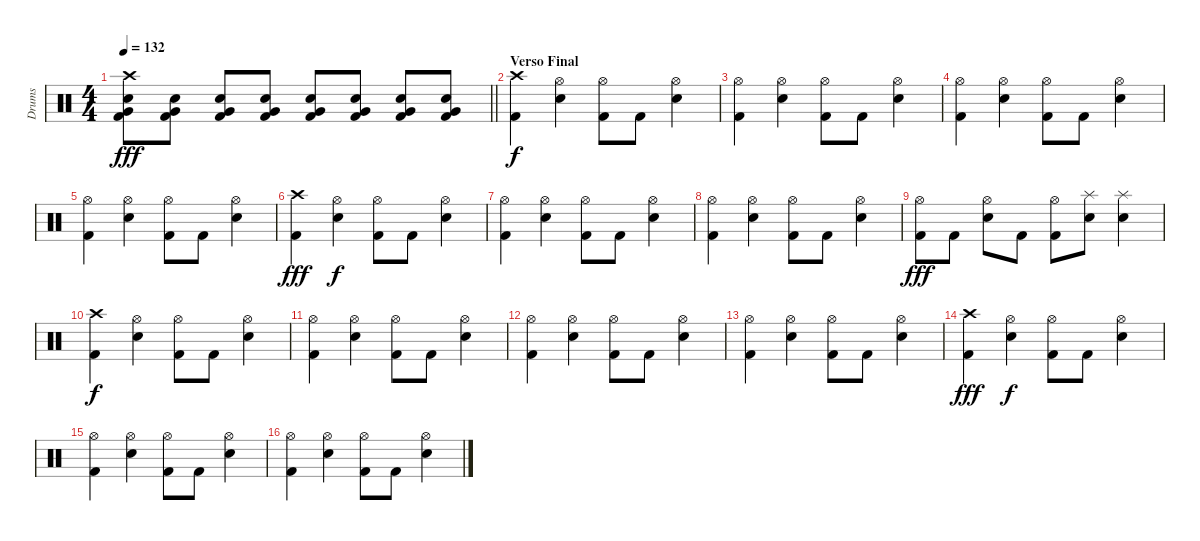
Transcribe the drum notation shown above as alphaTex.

\track ("Drums" "Drums") {instrument percussion}
\staff {score}
\articulation defaults
\ts (4 4)
\tempo 132
\clef neutral
\barLineRight lightlight
\ks c
("Crash high (hit)" "Electric Snare (hit)" "Very Low Tom (hit)" "Kick (hit) 2").8{dy fff} ("Electric Snare (hit)" "Very Low Tom (hit)" "Kick (hit) 2").8 ("Electric Snare (hit)" "Very Low Tom (hit)" "Kick (hit) 2").8 ("Electric Snare (hit)" "Very Low Tom (hit)" "Kick (hit) 2").8 ("Electric Snare (hit)" "Very Low Tom (hit)" "Kick (hit) 2").8 ("Electric Snare (hit)" "Very Low Tom (hit)" "Kick (hit) 2").8 ("Electric Snare (hit)" "Very Low Tom (hit)" "Kick (hit) 2").8 ("Electric Snare (hit)" "Very Low Tom (hit)" "Kick (hit) 2").8 |
\section ("" "Verso Final")
("Crash high (hit)" "Kick (hit) 2").4{dy f} ("Hi-Hat (open)" "Electric Snare (hit)").4 ("Hi-Hat (open)" "Kick (hit) 2").8 "Kick (hit) 2".8 ("Hi-Hat (open)" "Electric Snare (hit)").4 |
("Hi-Hat (open)" "Kick (hit) 2").4 ("Hi-Hat (open)" "Electric Snare (hit)").4 ("Hi-Hat (open)" "Kick (hit) 2").8 "Kick (hit) 2".8 ("Hi-Hat (open)" "Electric Snare (hit)").4 |
("Hi-Hat (open)" "Kick (hit) 2").4 ("Hi-Hat (open)" "Electric Snare (hit)").4 ("Hi-Hat (open)" "Kick (hit) 2").8 "Kick (hit) 2".8 ("Hi-Hat (open)" "Electric Snare (hit)").4 |
("Hi-Hat (open)" "Kick (hit) 2").4 ("Hi-Hat (open)" "Electric Snare (hit)").4 ("Hi-Hat (open)" "Kick (hit) 2").8 "Kick (hit) 2".8 ("Hi-Hat (open)" "Electric Snare (hit)").4 |
("Crash high (hit)" "Kick (hit) 2").4{dy fff} ("Hi-Hat (open)" "Electric Snare (hit)").4{dy f} ("Hi-Hat (open)" "Kick (hit) 2").8 "Kick (hit) 2".8 ("Hi-Hat (open)" "Electric Snare (hit)").4 |
("Hi-Hat (open)" "Kick (hit) 2").4 ("Hi-Hat (open)" "Electric Snare (hit)").4 ("Hi-Hat (open)" "Kick (hit) 2").8 "Kick (hit) 2".8 ("Hi-Hat (open)" "Electric Snare (hit)").4 |
("Hi-Hat (open)" "Kick (hit) 2").4 ("Hi-Hat (open)" "Electric Snare (hit)").4 ("Hi-Hat (open)" "Kick (hit) 2").8 "Kick (hit) 2".8 ("Hi-Hat (open)" "Electric Snare (hit)").4 |
("Hi-Hat (open)" "Kick (hit) 2").8{dy fff} "Kick (hit) 2".8 ("Hi-Hat (open)" "Electric Snare (hit)").8 "Kick (hit) 2".8 ("Hi-Hat (open)" "Kick (hit) 2").8 ("Splash (hit)" "Electric Snare (hit)").8 ("Splash (hit)" "Electric Snare (hit)").4 |
("Crash high (hit)" "Kick (hit) 2").4{dy f} ("Hi-Hat (open)" "Electric Snare (hit)").4 ("Hi-Hat (open)" "Kick (hit) 2").8 "Kick (hit) 2".8 ("Hi-Hat (open)" "Electric Snare (hit)").4 |
("Hi-Hat (open)" "Kick (hit) 2").4 ("Hi-Hat (open)" "Electric Snare (hit)").4 ("Hi-Hat (open)" "Kick (hit) 2").8 "Kick (hit) 2".8 ("Hi-Hat (open)" "Electric Snare (hit)").4 |
("Hi-Hat (open)" "Kick (hit) 2").4 ("Hi-Hat (open)" "Electric Snare (hit)").4 ("Hi-Hat (open)" "Kick (hit) 2").8 "Kick (hit) 2".8 ("Hi-Hat (open)" "Electric Snare (hit)").4 |
("Hi-Hat (open)" "Kick (hit) 2").4 ("Hi-Hat (open)" "Electric Snare (hit)").4 ("Hi-Hat (open)" "Kick (hit) 2").8 "Kick (hit) 2".8 ("Hi-Hat (open)" "Electric Snare (hit)").4 |
("Crash high (hit)" "Kick (hit) 2").4{dy fff} ("Hi-Hat (open)" "Electric Snare (hit)").4{dy f} ("Hi-Hat (open)" "Kick (hit) 2").8 "Kick (hit) 2".8 ("Hi-Hat (open)" "Electric Snare (hit)").4 |
("Hi-Hat (open)" "Kick (hit) 2").4 ("Hi-Hat (open)" "Electric Snare (hit)").4 ("Hi-Hat (open)" "Kick (hit) 2").8 "Kick (hit) 2".8 ("Hi-Hat (open)" "Electric Snare (hit)").4 |
("Hi-Hat (open)" "Kick (hit) 2").4 ("Hi-Hat (open)" "Electric Snare (hit)").4 ("Hi-Hat (open)" "Kick (hit) 2").8 "Kick (hit) 2".8 ("Hi-Hat (open)" "Electric Snare (hit)").4
